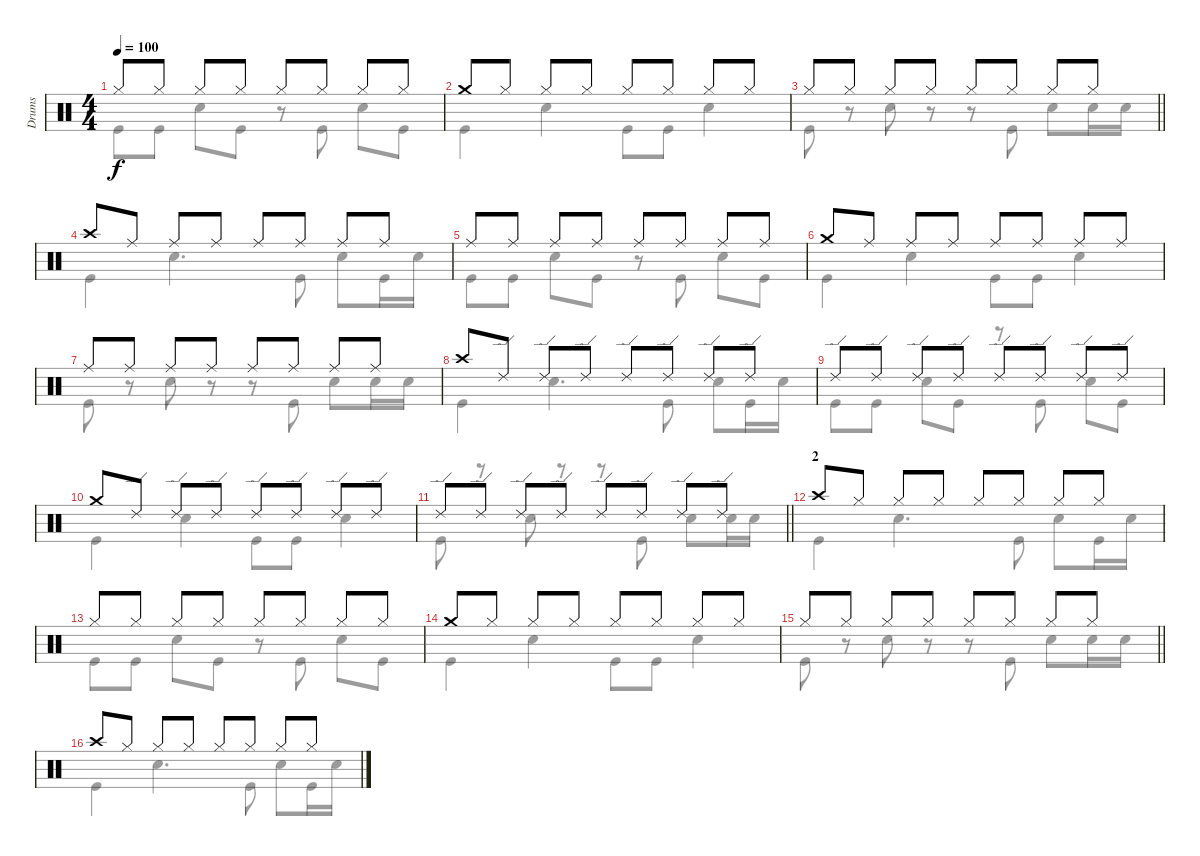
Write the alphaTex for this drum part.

\track ("Drums" "Drums") {instrument percussion}
\staff {score}
\articulation defaults
\voice
\ts (4 4)
\tempo 100
\clef neutral
\ks c "Hi-Hat (closed)".8{dy f} "Hi-Hat (closed)".8 "Hi-Hat (closed)".8 "Hi-Hat (closed)".8 "Hi-Hat (closed)".8 "Hi-Hat (closed)".8 "Hi-Hat (closed)".8 "Hi-Hat (closed)".8
|
"Crash medium (hit)".8 "Hi-Hat (closed)".8 "Hi-Hat (closed)".8 "Hi-Hat (closed)".8 "Hi-Hat (closed)".8 "Hi-Hat (closed)".8 "Hi-Hat (closed)".8 "Hi-Hat (closed)".8 |
\barLineRight lightlight "Hi-Hat (closed)".8 "Hi-Hat (closed)".8 "Hi-Hat (closed)".8 "Hi-Hat (closed)".8 "Hi-Hat (closed)".8 "Hi-Hat (closed)".8 "Hi-Hat (closed)".8 "Hi-Hat (closed)".8
|
"Crash high (hit)".8 "Ride (middle)".8 "Ride (middle)".8 "Ride (middle)".8 "Ride (middle)".8 "Ride (middle)".8 "Ride (middle)".8 "Ride (middle)".8 |
"Ride (middle)".8 "Ride (middle)".8 "Ride (middle)".8 "Ride (middle)".8 "Ride (middle)".8 "Ride (middle)".8 "Ride (middle)".8 "Ride (middle)".8 |
"Crash medium (hit)".8 "Ride (middle)".8 "Ride (middle)".8 "Ride (middle)".8 "Ride (middle)".8 "Ride (middle)".8 "Ride (middle)".8 "Ride (middle)".8 |
"Ride (middle)".8 "Ride (middle)".8 "Ride (middle)".8 "Ride (middle)".8 "Ride (middle)".8 "Ride (middle)".8 "Ride (middle)".8 "Ride (middle)".8 |
"Crash high (hit)".8 "Ride (edge) 2".8 "Ride (edge) 2".8 "Ride (edge) 2".8 "Ride (edge) 2".8 "Ride (edge) 2".8 "Ride (edge) 2".8 "Ride (edge) 2".8 |
"Ride (edge) 2".8 "Ride (edge) 2".8 "Ride (edge) 2".8 "Ride (edge) 2".8 "Ride (edge) 2".8 "Ride (edge) 2".8 "Ride (edge) 2".8 "Ride (edge) 2".8 |
"Crash medium (hit)".8 "Ride (edge) 2".8 "Ride (edge) 2".8 "Ride (edge) 2".8 "Ride (edge) 2".8 "Ride (edge) 2".8 "Ride (edge) 2".8 "Ride (edge) 2".8 |
\barLineRight lightlight "Ride (edge) 2".8 "Ride (edge) 2".8 "Ride (edge) 2".8 "Ride (edge) 2".8 "Ride (edge) 2".8 "Ride (edge) 2".8 "Ride (edge) 2".8 "Ride (edge) 2".8
|
\section ("" "2")
"Crash high (hit)".8 "Hi-Hat (closed)".8 "Hi-Hat (closed)".8 "Hi-Hat (closed)".8 "Hi-Hat (closed)".8 "Hi-Hat (closed)".8 "Hi-Hat (closed)".8 "Hi-Hat (closed)".8 |
"Hi-Hat (closed)".8 "Hi-Hat (closed)".8 "Hi-Hat (closed)".8 "Hi-Hat (closed)".8 "Hi-Hat (closed)".8 "Hi-Hat (closed)".8 "Hi-Hat (closed)".8 "Hi-Hat (closed)".8 |
"Crash medium (hit)".8 "Hi-Hat (closed)".8 "Hi-Hat (closed)".8 "Hi-Hat (closed)".8 "Hi-Hat (closed)".8 "Hi-Hat (closed)".8 "Hi-Hat (closed)".8 "Hi-Hat (closed)".8 |
\barLineRight lightlight "Hi-Hat (closed)".8 "Hi-Hat (closed)".8 "Hi-Hat (closed)".8 "Hi-Hat (closed)".8 "Hi-Hat (closed)".8 "Hi-Hat (closed)".8 "Hi-Hat (closed)".8 "Hi-Hat (closed)".8
|
"Crash high (hit)".8 "Hi-Hat (closed)".8 "Hi-Hat (closed)".8 "Hi-Hat (closed)".8 "Hi-Hat (closed)".8 "Hi-Hat (closed)".8 "Hi-Hat (closed)".8 "Hi-Hat (closed)".8
\voice
\clef neutral
\ottava regular
\simile none
\ks c "Kick (hit)".8{dy f} "Kick (hit)".8 "Snare (hit) 2".8 "Kick (hit)".8
r.8 "Kick (hit)".8 "Snare (hit) 2".8 "Kick (hit)".8 |
"Kick (hit)".4 "Snare (hit) 2".4 "Kick (hit)".8 "Kick (hit)".8 "Snare (hit) 2".4 |
\barLineRight lightlight "Kick (hit)".8
r.8 "Snare (hit) 2".8 r.8 r.8 "Kick (hit)".8 "Snare (hit) 2".8 "Snare (hit) 2".16 "Snare (hit) 2".16 |
"Kick (hit)".4 "Snare (hit) 2".4{d} "Kick (hit)".8 "Snare (hit) 2".8 "Kick (hit)".16 "Snare (hit) 2".16 |
"Kick (hit)".8 "Kick (hit)".8 "Snare (hit) 2".8 "Kick (hit)".8 r.8 "Kick (hit)".8 "Snare (hit) 2".8 "Kick (hit)".8 |
"Kick (hit)".4 "Snare (hit) 2".4 "Kick (hit)".8 "Kick (hit)".8 "Snare (hit) 2".4 |
"Kick (hit)".8 r.8 "Snare (hit) 2".8 r.8 r.8 "Kick (hit)".8 "Snare (hit) 2".8 "Snare (hit) 2".16 "Snare (hit) 2".16 |
"Kick (hit)".4 "Snare (hit) 2".4{d} "Kick (hit)".8 "Snare (hit) 2".8 "Kick (hit)".16 "Snare (hit) 2".16 |
"Kick (hit)".8 "Kick (hit)".8 "Snare (hit) 2".8 "Kick (hit)".8 r.8 "Kick (hit)".8 "Snare (hit) 2".8 "Kick (hit)".8 |
"Kick (hit)".4 "Snare (hit) 2".4 "Kick (hit)".8 "Kick (hit)".8 "Snare (hit) 2".4 |
\barLineRight lightlight "Kick (hit)".8
r.8 "Snare (hit) 2".8 r.8 r.8 "Kick (hit)".8 "Snare (hit) 2".8 "Snare (hit) 2".16 "Snare (hit) 2".16 |
"Kick (hit)".4 "Snare (hit) 2".4{d} "Kick (hit)".8 "Snare (hit) 2".8 "Kick (hit)".16 "Snare (hit) 2".16 |
"Kick (hit)".8 "Kick (hit)".8 "Snare (hit) 2".8 "Kick (hit)".8 r.8 "Kick (hit)".8 "Snare (hit) 2".8 "Kick (hit)".8 |
"Kick (hit)".4 "Snare (hit) 2".4 "Kick (hit)".8 "Kick (hit)".8 "Snare (hit) 2".4 |
\barLineRight lightlight "Kick (hit)".8
r.8 "Snare (hit) 2".8 r.8 r.8 "Kick (hit)".8 "Snare (hit) 2".8 "Snare (hit) 2".16 "Snare (hit) 2".16 |
"Kick (hit)".4 "Snare (hit) 2".4{d} "Kick (hit)".8 "Snare (hit) 2".8 "Kick (hit)".16 "Snare (hit) 2".16
